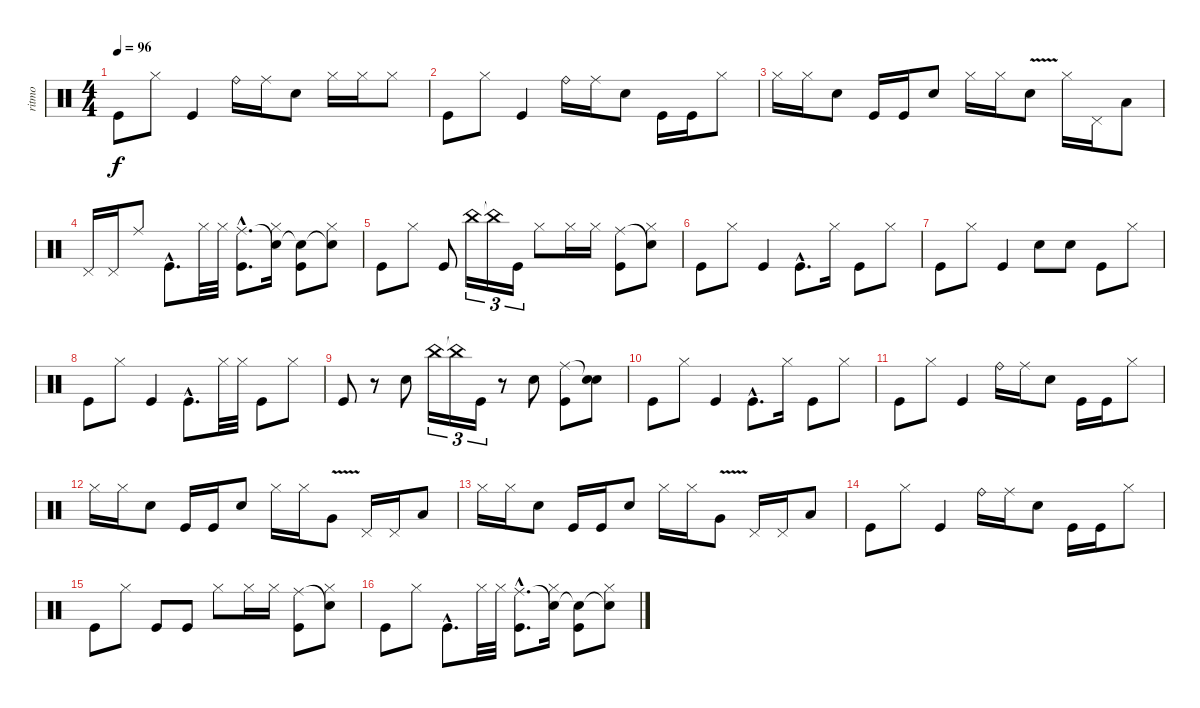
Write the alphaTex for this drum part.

\track ("ritmo" "ritmo") {instrument percussion}
\staff {score}
\articulation defaults
\ts (4 4)
\tempo 96
\clef neutral
\ks c "Kick (hit)".8{dy f} "Hi-Hat (closed)".8 "Kick (hit)".4 "Ride (bell)".16 "Ride (middle)".16 "Snare (hit) 2".8 "Hi-Hat (closed)".16 "Hi-Hat (closed)".16 "Hi-Hat (closed)".8
|
"Kick (hit)".8 "Hi-Hat (closed)".8 "Kick (hit)".4 "Ride (bell)".16 "Ride (middle)".16 "Snare (hit) 2".8 "Kick (hit)".16 "Kick (hit)".16 "Hi-Hat (closed)".8 |
"Hi-Hat (closed)".16 "Hi-Hat (closed)".16 "Snare (hit) 2".8 "Kick (hit)".16 "Kick (hit)".16 "Electric Snare (hit)".8 "Hi-Hat (closed)".16 "Hi-Hat (closed)".16 "Snare (hit) 2"{v}.8 "Hi-Hat (closed)".16 "Pedal Hi-Hat (hit)".16 "Low Tom (hit)".8 |
"Pedal Hi-Hat (hit)".16 "Pedal Hi-Hat (hit)".16 "Ride (middle)".8 "Kick (hit)"{hac}.8{d} "Hi-Hat (closed)".32 "Hi-Hat (closed)".32 ("Kick (hit)"{hac} "Ride (middle)"{hac}).8{d} ("Hi-Hat (closed)" "Snare (hit)"{t}).16 ("Kick (hit)" "Snare (hit)"{t}).8 ("Hi-Hat (closed)" "Snare (hit)"{t}).8 |
"Kick (hit)".8 "Hi-Hat (closed)".8 "Kick (hit)".8 "China (hit)".16{tu (3 2)} "China (hit)"{t}.16{tu (3 2)} "Kick (hit)".16{tu (3 2)} "Hi-Hat (closed)".8 "Hi-Hat (closed)".16 "Hi-Hat (closed)".16 ("Kick (hit)" "Ride (middle)").8 ("Hi-Hat (closed)" "Snare (hit)"{t}).8 |
"Kick (hit)".8 "Hi-Hat (closed)".8 "Kick (hit)".4 "Kick (hit)"{hac}.8{d} "Hi-Hat (closed)".16 "Kick (hit)".8 "Hi-Hat (closed)".8 |
"Kick (hit)".8 "Hi-Hat (closed)".8 "Kick (hit)".4 "Snare (hit) 2".8 "Snare (hit) 2".8 "Kick (hit)".8 "Hi-Hat (closed)".8 |
"Kick (hit)".8 "Hi-Hat (closed)".8 "Kick (hit)".4 "Kick (hit)"{hac}.8{d} "Hi-Hat (closed)".32 "Hi-Hat (closed)".32 "Kick (hit)".8 "Hi-Hat (closed)".8 |
"Kick (hit)".8 r.8 "Snare (hit) 2".8 "China (hit)".16{tu (3 2)} "China (hit)"{t}.16{tu (3 2)} "Kick (hit)".16{tu (3 2)} r.8 "Snare (hit) 2".8 ("Kick (hit)" "Ride (middle)").8 ("Snare (hit) 2" "Snare (hit)"{t}).8 |
"Kick (hit)".8 "Hi-Hat (closed)".8 "Kick (hit)".4 "Kick (hit)"{hac}.8{d} "Hi-Hat (closed)".16 "Kick (hit)".8 "Hi-Hat (closed)".8 |
"Kick (hit)".8 "Hi-Hat (closed)".8 "Kick (hit)".4 "Ride (bell)".16 "Ride (middle)".16 "Snare (hit) 2".8 "Kick (hit)".16 "Kick (hit)".16 "Hi-Hat (closed)".8 |
"Hi-Hat (closed)".16 "Hi-Hat (closed)".16 "Snare (hit) 2".8 "Kick (hit)".16 "Kick (hit)".16 "Electric Snare (hit)".8 "Hi-Hat (closed)".16 "Hi-Hat (closed)".16 "Very Low Tom (hit)"{v}.8 "Pedal Hi-Hat (hit)".16 "Pedal Hi-Hat (hit)".16 "Low Tom (hit)".8 |
"Hi-Hat (closed)".16 "Hi-Hat (closed)".16 "Snare (hit) 2".8 "Kick (hit)".16 "Kick (hit)".16 "Electric Snare (hit)".8 "Hi-Hat (closed)".16 "Hi-Hat (closed)".16 "Very Low Tom (hit)"{v}.8 "Pedal Hi-Hat (hit)".16 "Pedal Hi-Hat (hit)".16 "Low Tom (hit)".8 |
"Kick (hit)".8 "Hi-Hat (closed)".8 "Kick (hit)".4 "Ride (bell)".16 "Ride (middle)".16 "Snare (hit) 2".8 "Kick (hit)".16 "Kick (hit)".16 "Hi-Hat (closed)".8 |
"Kick (hit)".8 "Hi-Hat (closed)".8 "Kick (hit)".8 "Kick (hit)".8 "Hi-Hat (closed)".8 "Hi-Hat (closed)".16 "Hi-Hat (closed)".16 ("Kick (hit)" "Ride (middle)").8 ("Hi-Hat (closed)" "Snare (hit)"{t}).8 |
"Kick (hit)".8 "Hi-Hat (closed)".8 "Kick (hit)"{hac}.8{d} "Hi-Hat (closed)".32 "Hi-Hat (closed)".32 ("Kick (hit)"{hac} "Ride (middle)"{hac}).8{d} ("Hi-Hat (closed)" "Snare (hit)"{t}).16 ("Kick (hit)" "Snare (hit)"{t}).8 ("Hi-Hat (closed)" "Snare (hit)"{t}).8
